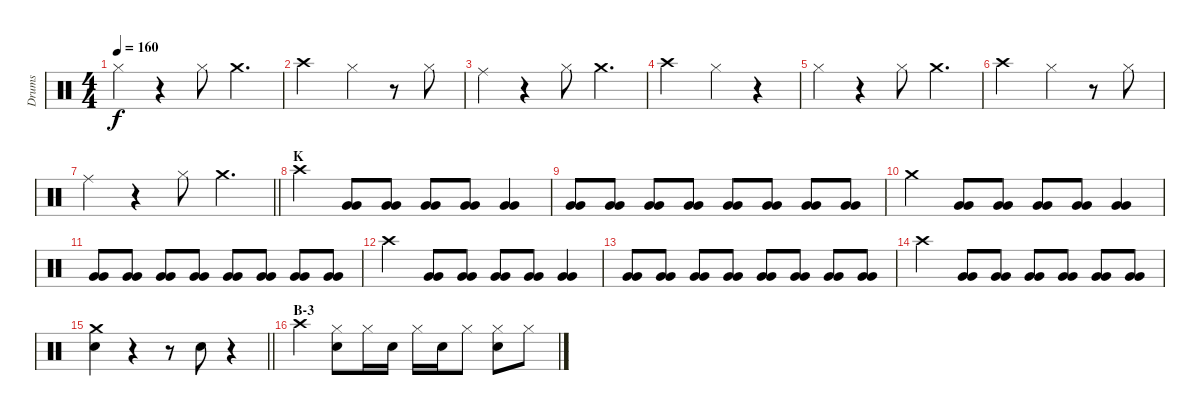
\track ("Drums" "Drums") {instrument percussion}
\staff {score}
\articulation defaults
\ts (4 4)
\tempo 160
\clef neutral
\ks c "Hi-Hat (closed)".4{dy f}
r.4 "Hi-Hat (closed)".8 "Crash medium (hit)".4{d} |
"Crash high (hit)".2 "Hi-Hat (closed)".4 r.8 "Hi-Hat (closed)".8 |
"Ride (middle)".4 r.4 "Hi-Hat (closed)".8 "Crash medium (hit)".4{d} |
"Crash high (hit)".2 "Hi-Hat (closed)".4 r.4 |
"Hi-Hat (closed)".4 r.4 "Hi-Hat (closed)".8 "Crash medium (hit)".4{d} |
"Crash high (hit)".2 "Hi-Hat (closed)".4 r.8 "Hi-Hat (closed)".8 |
\barLineRight lightlight "Ride (middle)".4
r.4 "Hi-Hat (closed)".8 "Crash medium (hit)".4{d} |
\section ("" "K")
"Crash high (hit)".4 ("Very Low Tom (hit)" "Very Low Tom (hit)").8 ("Very Low Tom (hit)" "Very Low Tom (hit)").8 ("Very Low Tom (hit)" "Very Low Tom (hit)").8 ("Very Low Tom (hit)" "Very Low Tom (hit)").8 ("Very Low Tom (hit)" "Very Low Tom (hit)").4 |
("Very Low Tom (hit)" "Very Low Tom (hit)").8 ("Very Low Tom (hit)" "Very Low Tom (hit)").8 ("Very Low Tom (hit)" "Very Low Tom (hit)").8 ("Very Low Tom (hit)" "Very Low Tom (hit)").8 ("Very Low Tom (hit)" "Very Low Tom (hit)").8 ("Very Low Tom (hit)" "Very Low Tom (hit)").8 ("Very Low Tom (hit)" "Very Low Tom (hit)").8 ("Very Low Tom (hit)" "Very Low Tom (hit)").8 |
"Crash medium (hit)".4 ("Very Low Tom (hit)" "Very Low Tom (hit)").8 ("Very Low Tom (hit)" "Very Low Tom (hit)").8 ("Very Low Tom (hit)" "Very Low Tom (hit)").8 ("Very Low Tom (hit)" "Very Low Tom (hit)").8 ("Very Low Tom (hit)" "Very Low Tom (hit)").4 |
("Very Low Tom (hit)" "Very Low Tom (hit)").8 ("Very Low Tom (hit)" "Very Low Tom (hit)").8 ("Very Low Tom (hit)" "Very Low Tom (hit)").8 ("Very Low Tom (hit)" "Very Low Tom (hit)").8 ("Very Low Tom (hit)" "Very Low Tom (hit)").8 ("Very Low Tom (hit)" "Very Low Tom (hit)").8 ("Very Low Tom (hit)" "Very Low Tom (hit)").8 ("Very Low Tom (hit)" "Very Low Tom (hit)").8 |
"Crash high (hit)".4 ("Very Low Tom (hit)" "Very Low Tom (hit)").8 ("Very Low Tom (hit)" "Very Low Tom (hit)").8 ("Very Low Tom (hit)" "Very Low Tom (hit)").8 ("Very Low Tom (hit)" "Very Low Tom (hit)").8 ("Very Low Tom (hit)" "Very Low Tom (hit)").4 |
("Very Low Tom (hit)" "Very Low Tom (hit)").8 ("Very Low Tom (hit)" "Very Low Tom (hit)").8 ("Very Low Tom (hit)" "Very Low Tom (hit)").8 ("Very Low Tom (hit)" "Very Low Tom (hit)").8 ("Very Low Tom (hit)" "Very Low Tom (hit)").8 ("Very Low Tom (hit)" "Very Low Tom (hit)").8 ("Very Low Tom (hit)" "Very Low Tom (hit)").8 ("Very Low Tom (hit)" "Very Low Tom (hit)").8 |
"Crash high (hit)".4 ("Very Low Tom (hit)" "Very Low Tom (hit)").8 ("Very Low Tom (hit)" "Very Low Tom (hit)").8 ("Very Low Tom (hit)" "Very Low Tom (hit)").8 ("Very Low Tom (hit)" "Very Low Tom (hit)").8 ("Very Low Tom (hit)" "Very Low Tom (hit)").8 ("Very Low Tom (hit)" "Very Low Tom (hit)").8 |
\barLineRight lightlight
("Crash medium (hit)" "Snare (hit) 2").4 r.4 r.8 "Snare (hit) 2".8 r.4 |
\section ("" "B-3")
"Crash high (hit)".4 ("Hi-Hat (closed)" "Snare (hit) 2").8 "Hi-Hat (closed)".16 "Snare (hit) 2".16 "Hi-Hat (closed)".16 "Snare (hit) 2".16 "Hi-Hat (closed)".8 ("Hi-Hat (closed)" "Snare (hit) 2").8 "Hi-Hat (closed)".8
